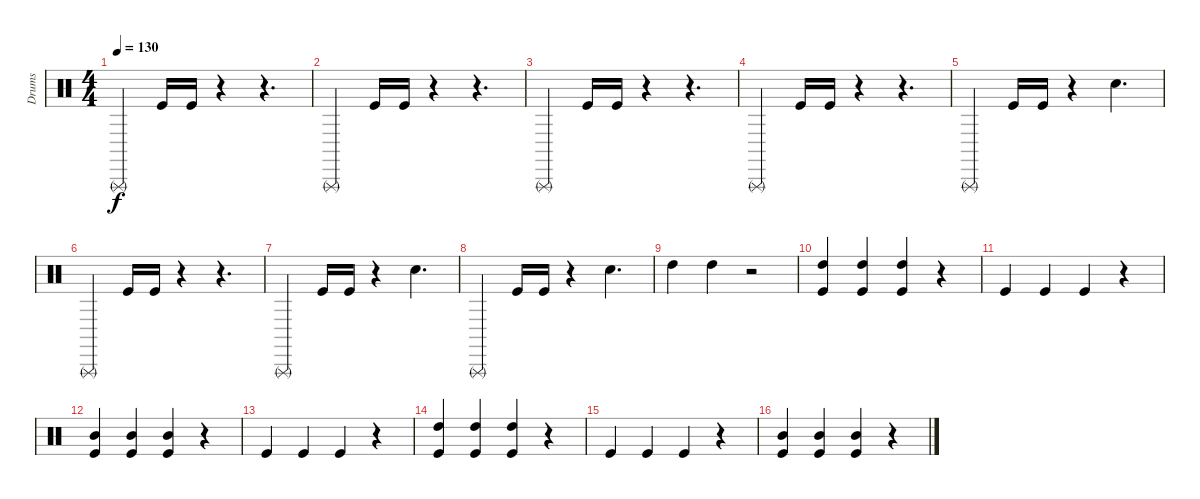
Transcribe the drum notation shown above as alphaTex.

\track ("Drums" "Drums") {instrument percussion}
\staff {score}
\articulation defaults
\ts (4 4)
\tempo 130
\clef neutral
\ks c "Triangle (rnute)".4{dy f} "Kick (hit)".16 "Kick (hit)".16
r.4 r.4{d} |
"Triangle (rnute)".4 "Kick (hit)".16 "Kick (hit)".16 r.4 r.4{d} |
"Triangle (rnute)".4 "Kick (hit)".16 "Kick (hit)".16 r.4 r.4{d} |
"Triangle (rnute)".4 "Kick (hit)".16 "Kick (hit)".16 r.4 r.4{d} |
"Triangle (rnute)".4 "Kick (hit)".16 "Kick (hit)".16 r.4 "Snare (hit) 2".4{d} |
"Triangle (rnute)".4 "Kick (hit)".16 "Kick (hit)".16 r.4 r.4{d} |
"Triangle (rnute)".4 "Kick (hit)".16 "Kick (hit)".16 r.4 "Snare (hit) 2".4{d} |
"Triangle (rnute)".4 "Kick (hit)".16 "Kick (hit)".16 r.4 "Snare (hit) 2".4{d} |
"High Tom (hit)".4 "High Tom (hit)".4 r.2 |
("High Tom (hit)" "Kick (hit)").4 ("High Tom (hit)" "Kick (hit)").4 ("High Tom (hit)" "Kick (hit)").4 r.4 |
"Kick (hit)".4 "Kick (hit)".4 "Kick (hit)".4 r.4 |
("Mid Tom (hit)" "Kick (hit)").4 ("Mid Tom (hit)" "Kick (hit)").4 ("Mid Tom (hit)" "Kick (hit)").4 r.4 |
"Kick (hit)".4 "Kick (hit)".4 "Kick (hit)".4 r.4 |
("High Tom (hit)" "Kick (hit)").4 ("High Tom (hit)" "Kick (hit)").4 ("High Tom (hit)" "Kick (hit)").4 r.4 |
"Kick (hit)".4 "Kick (hit)".4 "Kick (hit)".4 r.4 |
("Mid Tom (hit)" "Kick (hit)").4 ("Mid Tom (hit)" "Kick (hit)").4 ("Mid Tom (hit)" "Kick (hit)").4 r.4
